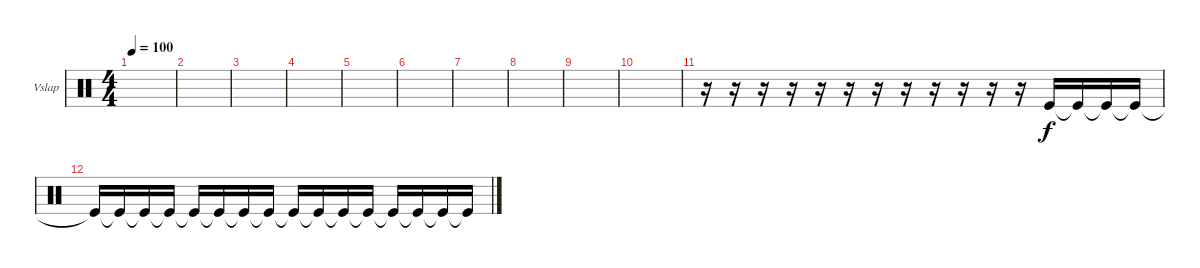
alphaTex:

\defaultSystemsLayout 4
\bracketExtendMode groupsimilarinstruments
\firstSystemTrackNameOrientation horizontal
\otherSystemsTrackNameOrientation horizontal
\track ("Vibraslap" "Vslap") {instrument percussion}
\staff {score}
\articulation defaults
\ts (4 4)
\tempo 100
\clef neutral
\scale
0.333333
\ks c
|
\scale
0.333333 |
\scale
0.333333 |
\scale
0.333333 |
\scale
0.333333 |
\scale
0.333333 |
\scale
0.333333 |
\scale
0.333333 |
\scale
0.333333 |
\scale
0.333333 |
\scale
0.333333 r.16 r.16 r.16 r.16 r.16 r.16 r.16 r.16 r.16 r.16 r.16 r.16 "Kick (hit)".16 "Kick (hit)"{t}.16 "Kick (hit)"{t}.16 "Kick (hit)"{t}.16 |
\scale
0.333333 "Kick (hit)"{t}.16 "Kick (hit)"{t}.16 "Kick (hit)"{t}.16 "Kick (hit)"{t}.16 "Kick (hit)"{t}.16 "Kick (hit)"{t}.16 "Kick (hit)"{t}.16 "Kick (hit)"{t}.16 "Kick (hit)"{t}.16 "Kick (hit)"{t}.16 "Kick (hit)"{t}.16 "Kick (hit)"{t}.16 "Kick (hit)"{t}.16 "Kick (hit)"{t}.16 "Kick (hit)"{t}.16 "Kick (hit)"{t}.16 |
\scale
0.333333 |
\scale
0.333333 |
\scale
0.333333 |
\scale
0.333333
